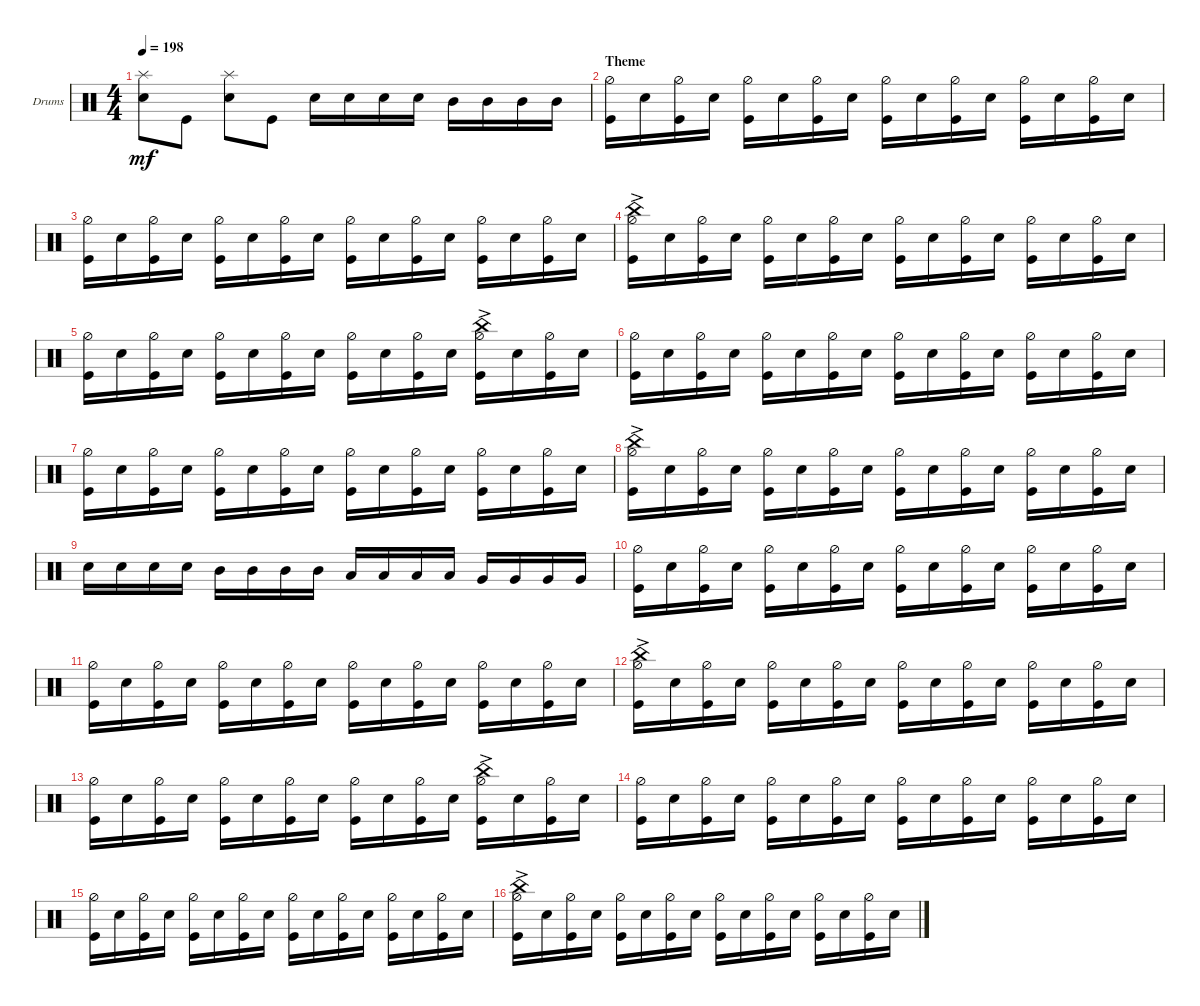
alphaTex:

\bracketExtendMode groupsimilarinstruments
\firstSystemTrackNameOrientation horizontal
\otherSystemsTrackNameOrientation horizontal
\track ("Drumkit" "Drums") {instrument percussion}
\staff {score}
\articulation defaults
\ts (4 4)
\tempo 198
\clef neutral
\ks c
("Snare (hit) 2" "Splash (hit)").8{dy mf} "Kick (hit)".8 ("Snare (hit) 2" "Splash (hit)").8 "Kick (hit)".8 "Snare (hit) 2".16 "Snare (hit) 2".16 "Snare (hit) 2".16 "Snare (hit) 2".16 "Mid Tom (hit)".16 "Mid Tom (hit)".16 "Mid Tom (hit)".16 "Mid Tom (hit)".16 |
\section ("" "Theme")
("Hi-Hat (half)" "Kick (hit)").16 "Snare (hit) 2".16 ("Hi-Hat (half)" "Kick (hit)").16 "Snare (hit) 2".16 ("Hi-Hat (half)" "Kick (hit)").16 "Snare (hit) 2".16 ("Hi-Hat (half)" "Kick (hit)").16 "Snare (hit) 2".16 ("Hi-Hat (half)" "Kick (hit)").16 "Snare (hit) 2".16 ("Hi-Hat (half)" "Kick (hit)").16 "Snare (hit) 2".16 ("Hi-Hat (half)" "Kick (hit)").16 "Snare (hit) 2".16 ("Hi-Hat (half)" "Kick (hit)").16 "Snare (hit) 2".16 |
("Hi-Hat (half)" "Kick (hit)").16 "Snare (hit) 2".16 ("Hi-Hat (half)" "Kick (hit)").16 "Snare (hit) 2".16 ("Hi-Hat (half)" "Kick (hit)").16 "Snare (hit) 2".16 ("Hi-Hat (half)" "Kick (hit)").16 "Snare (hit) 2".16 ("Hi-Hat (half)" "Kick (hit)").16 "Snare (hit) 2".16 ("Hi-Hat (half)" "Kick (hit)").16 "Snare (hit) 2".16 ("Hi-Hat (half)" "Kick (hit)").16 "Snare (hit) 2".16 ("Hi-Hat (half)" "Kick (hit)").16 "Snare (hit) 2".16 |
("Hi-Hat (half)" "Kick (hit)" "China (hit)"{ac}).16 "Snare (hit) 2".16 ("Hi-Hat (half)" "Kick (hit)").16 "Snare (hit) 2".16 ("Hi-Hat (half)" "Kick (hit)").16 "Snare (hit) 2".16 ("Hi-Hat (half)" "Kick (hit)").16 "Snare (hit) 2".16 ("Hi-Hat (half)" "Kick (hit)").16 "Snare (hit) 2".16 ("Hi-Hat (half)" "Kick (hit)").16 "Snare (hit) 2".16 ("Hi-Hat (half)" "Kick (hit)").16 "Snare (hit) 2".16 ("Hi-Hat (half)" "Kick (hit)").16 "Snare (hit) 2".16 |
("Hi-Hat (half)" "Kick (hit)").16 "Snare (hit) 2".16 ("Hi-Hat (half)" "Kick (hit)").16 "Snare (hit) 2".16 ("Hi-Hat (half)" "Kick (hit)").16 "Snare (hit) 2".16 ("Hi-Hat (half)" "Kick (hit)").16 "Snare (hit) 2".16 ("Hi-Hat (half)" "Kick (hit)").16 "Snare (hit) 2".16 ("Hi-Hat (half)" "Kick (hit)").16 "Snare (hit) 2".16 ("Hi-Hat (half)" "Kick (hit)" "China (hit)"{ac}).16 "Snare (hit) 2".16 ("Hi-Hat (half)" "Kick (hit)").16 "Snare (hit) 2".16 |
("Hi-Hat (half)" "Kick (hit)").16 "Snare (hit) 2".16 ("Hi-Hat (half)" "Kick (hit)").16 "Snare (hit) 2".16 ("Hi-Hat (half)" "Kick (hit)").16 "Snare (hit) 2".16 ("Hi-Hat (half)" "Kick (hit)").16 "Snare (hit) 2".16 ("Hi-Hat (half)" "Kick (hit)").16 "Snare (hit) 2".16 ("Hi-Hat (half)" "Kick (hit)").16 "Snare (hit) 2".16 ("Hi-Hat (half)" "Kick (hit)").16 "Snare (hit) 2".16 ("Hi-Hat (half)" "Kick (hit)").16 "Snare (hit) 2".16 |
("Hi-Hat (half)" "Kick (hit)").16 "Snare (hit) 2".16 ("Hi-Hat (half)" "Kick (hit)").16 "Snare (hit) 2".16 ("Hi-Hat (half)" "Kick (hit)").16 "Snare (hit) 2".16 ("Hi-Hat (half)" "Kick (hit)").16 "Snare (hit) 2".16 ("Hi-Hat (half)" "Kick (hit)").16 "Snare (hit) 2".16 ("Hi-Hat (half)" "Kick (hit)").16 "Snare (hit) 2".16 ("Hi-Hat (half)" "Kick (hit)").16 "Snare (hit) 2".16 ("Hi-Hat (half)" "Kick (hit)").16 "Snare (hit) 2".16 |
("Hi-Hat (half)" "Kick (hit)" "China (hit)"{ac}).16 "Snare (hit) 2".16 ("Hi-Hat (half)" "Kick (hit)").16 "Snare (hit) 2".16 ("Hi-Hat (half)" "Kick (hit)").16 "Snare (hit) 2".16 ("Hi-Hat (half)" "Kick (hit)").16 "Snare (hit) 2".16 ("Hi-Hat (half)" "Kick (hit)").16 "Snare (hit) 2".16 ("Hi-Hat (half)" "Kick (hit)").16 "Snare (hit) 2".16 ("Hi-Hat (half)" "Kick (hit)").16 "Snare (hit) 2".16 ("Hi-Hat (half)" "Kick (hit)").16 "Snare (hit) 2".16 |
"Snare (hit) 2".16 "Snare (hit) 2".16 "Snare (hit) 2".16 "Snare (hit) 2".16 "Mid Tom (hit)".16 "Mid Tom (hit)".16 "Mid Tom (hit)".16 "Mid Tom (hit)".16 "Low Tom (hit)".16 "Low Tom (hit)".16 "Low Tom (hit)".16 "Low Tom (hit)".16 "Very Low Tom (hit)".16 "Very Low Tom (hit)".16 "Very Low Tom (hit)".16 "Very Low Tom (hit)".16 |
("Hi-Hat (half)" "Kick (hit)").16 "Snare (hit) 2".16 ("Hi-Hat (half)" "Kick (hit)").16 "Snare (hit) 2".16 ("Hi-Hat (half)" "Kick (hit)").16 "Snare (hit) 2".16 ("Hi-Hat (half)" "Kick (hit)").16 "Snare (hit) 2".16 ("Hi-Hat (half)" "Kick (hit)").16 "Snare (hit) 2".16 ("Hi-Hat (half)" "Kick (hit)").16 "Snare (hit) 2".16 ("Hi-Hat (half)" "Kick (hit)").16 "Snare (hit) 2".16 ("Hi-Hat (half)" "Kick (hit)").16 "Snare (hit) 2".16 |
("Hi-Hat (half)" "Kick (hit)").16 "Snare (hit) 2".16 ("Hi-Hat (half)" "Kick (hit)").16 "Snare (hit) 2".16 ("Hi-Hat (half)" "Kick (hit)").16 "Snare (hit) 2".16 ("Hi-Hat (half)" "Kick (hit)").16 "Snare (hit) 2".16 ("Hi-Hat (half)" "Kick (hit)").16 "Snare (hit) 2".16 ("Hi-Hat (half)" "Kick (hit)").16 "Snare (hit) 2".16 ("Hi-Hat (half)" "Kick (hit)").16 "Snare (hit) 2".16 ("Hi-Hat (half)" "Kick (hit)").16 "Snare (hit) 2".16 |
("Hi-Hat (half)" "Kick (hit)" "China (hit)"{ac}).16 "Snare (hit) 2".16 ("Hi-Hat (half)" "Kick (hit)").16 "Snare (hit) 2".16 ("Hi-Hat (half)" "Kick (hit)").16 "Snare (hit) 2".16 ("Hi-Hat (half)" "Kick (hit)").16 "Snare (hit) 2".16 ("Hi-Hat (half)" "Kick (hit)").16 "Snare (hit) 2".16 ("Hi-Hat (half)" "Kick (hit)").16 "Snare (hit) 2".16 ("Hi-Hat (half)" "Kick (hit)").16 "Snare (hit) 2".16 ("Hi-Hat (half)" "Kick (hit)").16 "Snare (hit) 2".16 |
("Hi-Hat (half)" "Kick (hit)").16 "Snare (hit) 2".16 ("Hi-Hat (half)" "Kick (hit)").16 "Snare (hit) 2".16 ("Hi-Hat (half)" "Kick (hit)").16 "Snare (hit) 2".16 ("Hi-Hat (half)" "Kick (hit)").16 "Snare (hit) 2".16 ("Hi-Hat (half)" "Kick (hit)").16 "Snare (hit) 2".16 ("Hi-Hat (half)" "Kick (hit)").16 "Snare (hit) 2".16 ("Hi-Hat (half)" "Kick (hit)" "China (hit)"{ac}).16 "Snare (hit) 2".16 ("Hi-Hat (half)" "Kick (hit)").16 "Snare (hit) 2".16 |
("Hi-Hat (half)" "Kick (hit)").16 "Snare (hit) 2".16 ("Hi-Hat (half)" "Kick (hit)").16 "Snare (hit) 2".16 ("Hi-Hat (half)" "Kick (hit)").16 "Snare (hit) 2".16 ("Hi-Hat (half)" "Kick (hit)").16 "Snare (hit) 2".16 ("Hi-Hat (half)" "Kick (hit)").16 "Snare (hit) 2".16 ("Hi-Hat (half)" "Kick (hit)").16 "Snare (hit) 2".16 ("Hi-Hat (half)" "Kick (hit)").16 "Snare (hit) 2".16 ("Hi-Hat (half)" "Kick (hit)").16 "Snare (hit) 2".16 |
("Hi-Hat (half)" "Kick (hit)").16 "Snare (hit) 2".16 ("Hi-Hat (half)" "Kick (hit)").16 "Snare (hit) 2".16 ("Hi-Hat (half)" "Kick (hit)").16 "Snare (hit) 2".16 ("Hi-Hat (half)" "Kick (hit)").16 "Snare (hit) 2".16 ("Hi-Hat (half)" "Kick (hit)").16 "Snare (hit) 2".16 ("Hi-Hat (half)" "Kick (hit)").16 "Snare (hit) 2".16 ("Hi-Hat (half)" "Kick (hit)").16 "Snare (hit) 2".16 ("Hi-Hat (half)" "Kick (hit)").16 "Snare (hit) 2".16 |
("Hi-Hat (half)" "Kick (hit)" "China (hit)"{ac}).16 "Snare (hit) 2".16 ("Hi-Hat (half)" "Kick (hit)").16 "Snare (hit) 2".16 ("Hi-Hat (half)" "Kick (hit)").16 "Snare (hit) 2".16 ("Hi-Hat (half)" "Kick (hit)").16 "Snare (hit) 2".16 ("Hi-Hat (half)" "Kick (hit)").16 "Snare (hit) 2".16 ("Hi-Hat (half)" "Kick (hit)").16 "Snare (hit) 2".16 ("Hi-Hat (half)" "Kick (hit)").16 "Snare (hit) 2".16 ("Hi-Hat (half)" "Kick (hit)").16 "Snare (hit) 2".16
